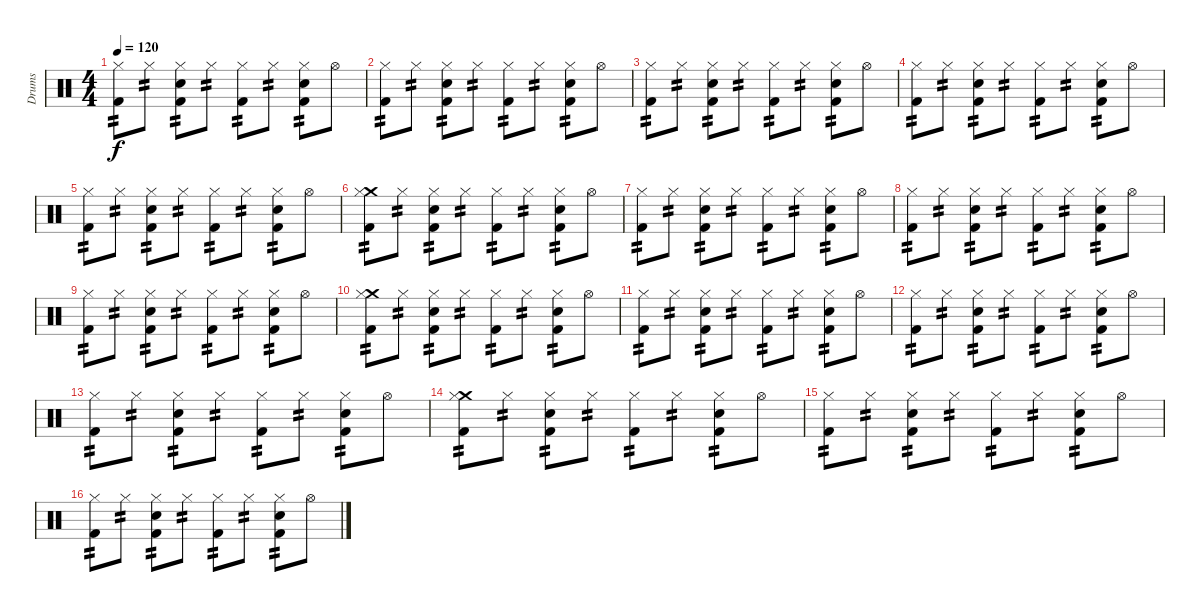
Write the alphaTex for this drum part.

\track ("Drums" "Drums") {instrument percussion}
\staff {score}
\articulation defaults
\ts (4 4)
\tempo 120
\clef neutral
\ks c
("Hi-Hat (closed)" "Kick (hit) 2").8{tp 2 dy f} "Hi-Hat (closed)".8{tp 2} ("Hi-Hat (closed)" "Snare (hit) 2" "Kick (hit) 2").8{tp 2} "Hi-Hat (closed)".8{tp 2} ("Hi-Hat (closed)" "Kick (hit) 2").8{tp 2} "Hi-Hat (closed)".8{tp 2} ("Hi-Hat (closed)" "Snare (hit) 2" "Kick (hit) 2").8{tp 2} "Hi-Hat (open)".8 |
("Hi-Hat (closed)" "Kick (hit) 2").8{tp 2} "Hi-Hat (closed)".8{tp 2} ("Hi-Hat (closed)" "Snare (hit) 2" "Kick (hit) 2").8{tp 2} "Hi-Hat (closed)".8{tp 2} ("Hi-Hat (closed)" "Kick (hit) 2").8{tp 2} "Hi-Hat (closed)".8{tp 2} ("Hi-Hat (closed)" "Snare (hit) 2" "Kick (hit) 2").8{tp 2} "Hi-Hat (open)".8 |
("Hi-Hat (closed)" "Kick (hit) 2").8{tp 2} "Hi-Hat (closed)".8{tp 2} ("Hi-Hat (closed)" "Snare (hit) 2" "Kick (hit) 2").8{tp 2} "Hi-Hat (closed)".8{tp 2} ("Hi-Hat (closed)" "Kick (hit) 2").8{tp 2} "Hi-Hat (closed)".8{tp 2} ("Hi-Hat (closed)" "Snare (hit) 2" "Kick (hit) 2").8{tp 2} "Hi-Hat (open)".8 |
("Hi-Hat (closed)" "Kick (hit) 2").8{tp 2} "Hi-Hat (closed)".8{tp 2} ("Hi-Hat (closed)" "Snare (hit) 2" "Kick (hit) 2").8{tp 2} "Hi-Hat (closed)".8{tp 2} ("Hi-Hat (closed)" "Kick (hit) 2").8{tp 2} "Hi-Hat (closed)".8{tp 2} ("Hi-Hat (closed)" "Snare (hit) 2" "Kick (hit) 2").8{tp 2} "Hi-Hat (open)".8 |
("Hi-Hat (closed)" "Kick (hit) 2").8{tp 2} "Hi-Hat (closed)".8{tp 2} ("Hi-Hat (closed)" "Snare (hit) 2" "Kick (hit) 2").8{tp 2} "Hi-Hat (closed)".8{tp 2} ("Hi-Hat (closed)" "Kick (hit) 2").8{tp 2} "Hi-Hat (closed)".8{tp 2} ("Hi-Hat (closed)" "Snare (hit) 2" "Kick (hit) 2").8{tp 2} "Hi-Hat (open)".8 |
("Crash medium (hit)" "Hi-Hat (closed)" "Kick (hit) 2").8{tp 2} "Hi-Hat (closed)".8{tp 2} ("Hi-Hat (closed)" "Snare (hit) 2" "Kick (hit) 2").8{tp 2} "Hi-Hat (closed)".8{tp 2} ("Hi-Hat (closed)" "Kick (hit) 2").8{tp 2} "Hi-Hat (closed)".8{tp 2} ("Hi-Hat (closed)" "Snare (hit) 2" "Kick (hit) 2").8{tp 2} "Hi-Hat (open)".8 |
("Hi-Hat (closed)" "Kick (hit) 2").8{tp 2} "Hi-Hat (closed)".8{tp 2} ("Hi-Hat (closed)" "Snare (hit) 2" "Kick (hit) 2").8{tp 2} "Hi-Hat (closed)".8{tp 2} ("Hi-Hat (closed)" "Kick (hit) 2").8{tp 2} "Hi-Hat (closed)".8{tp 2} ("Hi-Hat (closed)" "Snare (hit) 2" "Kick (hit) 2").8{tp 2} "Hi-Hat (open)".8 |
("Hi-Hat (closed)" "Kick (hit) 2").8{tp 2} "Hi-Hat (closed)".8{tp 2} ("Hi-Hat (closed)" "Snare (hit) 2" "Kick (hit) 2").8{tp 2} "Hi-Hat (closed)".8{tp 2} ("Hi-Hat (closed)" "Kick (hit) 2").8{tp 2} "Hi-Hat (closed)".8{tp 2} ("Hi-Hat (closed)" "Snare (hit) 2" "Kick (hit) 2").8{tp 2} "Hi-Hat (open)".8 |
("Hi-Hat (closed)" "Kick (hit) 2").8{tp 2} "Hi-Hat (closed)".8{tp 2} ("Hi-Hat (closed)" "Snare (hit) 2" "Kick (hit) 2").8{tp 2} "Hi-Hat (closed)".8{tp 2} ("Hi-Hat (closed)" "Kick (hit) 2").8{tp 2} "Hi-Hat (closed)".8{tp 2} ("Hi-Hat (closed)" "Snare (hit) 2" "Kick (hit) 2").8{tp 2} "Hi-Hat (open)".8 |
("Crash medium (hit)" "Hi-Hat (closed)" "Kick (hit) 2").8{tp 2} "Hi-Hat (closed)".8{tp 2} ("Hi-Hat (closed)" "Snare (hit) 2" "Kick (hit) 2").8{tp 2} "Hi-Hat (closed)".8{tp 2} ("Hi-Hat (closed)" "Kick (hit) 2").8{tp 2} "Hi-Hat (closed)".8{tp 2} ("Hi-Hat (closed)" "Snare (hit) 2" "Kick (hit) 2").8{tp 2} "Hi-Hat (open)".8 |
("Hi-Hat (closed)" "Kick (hit) 2").8{tp 2} "Hi-Hat (closed)".8{tp 2} ("Hi-Hat (closed)" "Snare (hit) 2" "Kick (hit) 2").8{tp 2} "Hi-Hat (closed)".8{tp 2} ("Hi-Hat (closed)" "Kick (hit) 2").8{tp 2} "Hi-Hat (closed)".8{tp 2} ("Hi-Hat (closed)" "Snare (hit) 2" "Kick (hit) 2").8{tp 2} "Hi-Hat (open)".8 |
("Hi-Hat (closed)" "Kick (hit) 2").8{tp 2} "Hi-Hat (closed)".8{tp 2} ("Hi-Hat (closed)" "Snare (hit) 2" "Kick (hit) 2").8{tp 2} "Hi-Hat (closed)".8{tp 2} ("Hi-Hat (closed)" "Kick (hit) 2").8{tp 2} "Hi-Hat (closed)".8{tp 2} ("Hi-Hat (closed)" "Snare (hit) 2" "Kick (hit) 2").8{tp 2} "Hi-Hat (open)".8 |
("Hi-Hat (closed)" "Kick (hit) 2").8{tp 2} "Hi-Hat (closed)".8{tp 2} ("Hi-Hat (closed)" "Snare (hit) 2" "Kick (hit) 2").8{tp 2} "Hi-Hat (closed)".8{tp 2} ("Hi-Hat (closed)" "Kick (hit) 2").8{tp 2} "Hi-Hat (closed)".8{tp 2} ("Hi-Hat (closed)" "Snare (hit) 2" "Kick (hit) 2").8{tp 2} "Hi-Hat (open)".8 |
("Crash medium (hit)" "Hi-Hat (closed)" "Kick (hit) 2").8{tp 2} "Hi-Hat (closed)".8{tp 2} ("Hi-Hat (closed)" "Snare (hit) 2" "Kick (hit) 2").8{tp 2} "Hi-Hat (closed)".8{tp 2} ("Hi-Hat (closed)" "Kick (hit) 2").8{tp 2} "Hi-Hat (closed)".8{tp 2} ("Hi-Hat (closed)" "Snare (hit) 2" "Kick (hit) 2").8{tp 2} "Hi-Hat (open)".8 |
("Hi-Hat (closed)" "Kick (hit) 2").8{tp 2} "Hi-Hat (closed)".8{tp 2} ("Hi-Hat (closed)" "Snare (hit) 2" "Kick (hit) 2").8{tp 2} "Hi-Hat (closed)".8{tp 2} ("Hi-Hat (closed)" "Kick (hit) 2").8{tp 2} "Hi-Hat (closed)".8{tp 2} ("Hi-Hat (closed)" "Snare (hit) 2" "Kick (hit) 2").8{tp 2} "Hi-Hat (open)".8 |
("Hi-Hat (closed)" "Kick (hit) 2").8{tp 2} "Hi-Hat (closed)".8{tp 2} ("Hi-Hat (closed)" "Snare (hit) 2" "Kick (hit) 2").8{tp 2} "Hi-Hat (closed)".8{tp 2} ("Hi-Hat (closed)" "Kick (hit) 2").8{tp 2} "Hi-Hat (closed)".8{tp 2} ("Hi-Hat (closed)" "Snare (hit) 2" "Kick (hit) 2").8{tp 2} "Hi-Hat (open)".8
